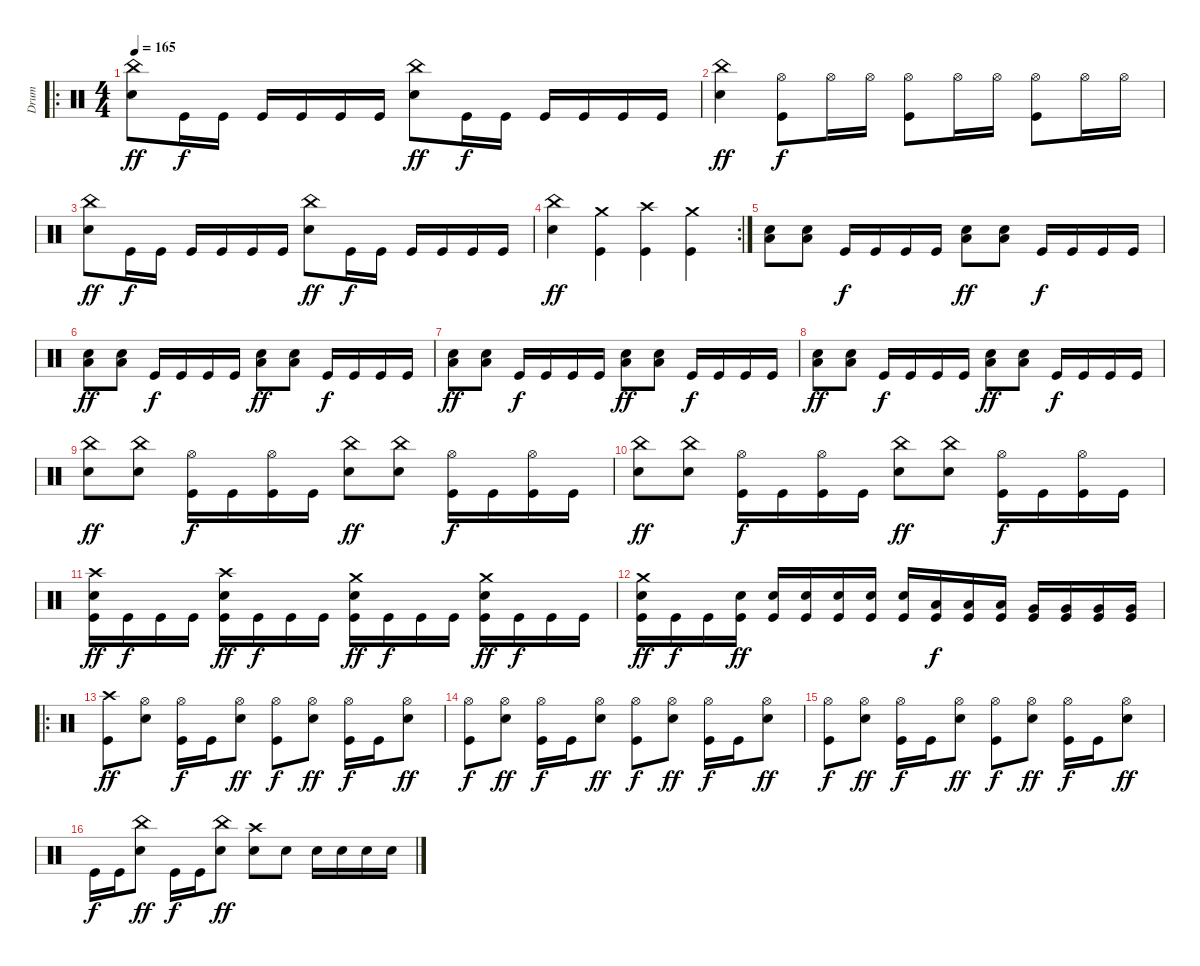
\track ("Drum" "Drum") {instrument percussion}
\staff {score}
\articulation defaults
\ro
\ts (4 4)
\tempo 165
\clef neutral
\ks c
("Electric Snare (hit)" "China (hit)").8{dy ff} "Kick (hit)".16{dy f} "Kick (hit)".16 "Kick (hit)".16 "Kick (hit)".16 "Kick (hit)".16 "Kick (hit)".16 ("Electric Snare (hit)" "China (hit)").8{dy ff} "Kick (hit)".16{dy f} "Kick (hit)".16 "Kick (hit)".16 "Kick (hit)".16 "Kick (hit)".16 "Kick (hit)".16 |
("Electric Snare (hit)" "China (hit)").4{dy ff} ("Kick (hit)" "Hi-Hat (open)").8{dy f} "Hi-Hat (open)".16 "Hi-Hat (open)".16 ("Kick (hit)" "Hi-Hat (open)").8 "Hi-Hat (open)".16 "Hi-Hat (open)".16 ("Kick (hit)" "Hi-Hat (open)").8 "Hi-Hat (open)".16 "Hi-Hat (open)".16 |
("Electric Snare (hit)" "China (hit)").8{dy ff} "Kick (hit)".16{dy f} "Kick (hit)".16 "Kick (hit)".16 "Kick (hit)".16 "Kick (hit)".16 "Kick (hit)".16 ("Electric Snare (hit)" "China (hit)").8{dy ff} "Kick (hit)".16{dy f} "Kick (hit)".16 "Kick (hit)".16 "Kick (hit)".16 "Kick (hit)".16 "Kick (hit)".16 |
\rc 2
("Electric Snare (hit)" "China (hit)").4{dy ff} ("Kick (hit)" "Crash medium (hit)").4 ("Kick (hit)" "Crash high (hit)").4 ("Kick (hit)" "Crash medium (hit)").4 |
("Electric Snare (hit)" "Low Floor Tom (hit)").8 ("Electric Snare (hit)" "Low Floor Tom (hit)").8 "Kick (hit)".16{dy f} "Kick (hit)".16 "Kick (hit)".16 "Kick (hit)".16 ("Electric Snare (hit)" "Low Floor Tom (hit)").8{dy ff} ("Electric Snare (hit)" "Low Floor Tom (hit)").8 "Kick (hit)".16{dy f} "Kick (hit)".16 "Kick (hit)".16 "Kick (hit)".16 |
("Electric Snare (hit)" "Low Floor Tom (hit)").8{dy ff} ("Electric Snare (hit)" "Low Floor Tom (hit)").8 "Kick (hit)".16{dy f} "Kick (hit)".16 "Kick (hit)".16 "Kick (hit)".16 ("Electric Snare (hit)" "Low Floor Tom (hit)").8{dy ff} ("Electric Snare (hit)" "Low Floor Tom (hit)").8 "Kick (hit)".16{dy f} "Kick (hit)".16 "Kick (hit)".16 "Kick (hit)".16 |
("Electric Snare (hit)" "Low Floor Tom (hit)").8{dy ff} ("Electric Snare (hit)" "Low Floor Tom (hit)").8 "Kick (hit)".16{dy f} "Kick (hit)".16 "Kick (hit)".16 "Kick (hit)".16 ("Electric Snare (hit)" "Low Floor Tom (hit)").8{dy ff} ("Electric Snare (hit)" "Low Floor Tom (hit)").8 "Kick (hit)".16{dy f} "Kick (hit)".16 "Kick (hit)".16 "Kick (hit)".16 |
("Electric Snare (hit)" "Low Floor Tom (hit)").8{dy ff} ("Electric Snare (hit)" "Low Floor Tom (hit)").8 "Kick (hit)".16{dy f} "Kick (hit)".16 "Kick (hit)".16 "Kick (hit)".16 ("Electric Snare (hit)" "Low Floor Tom (hit)").8{dy ff} ("Electric Snare (hit)" "Low Floor Tom (hit)").8 "Kick (hit)".16{dy f} "Kick (hit)".16 "Kick (hit)".16 "Kick (hit)".16 |
("Electric Snare (hit)" "China (hit)").8{dy ff} ("Electric Snare (hit)" "China (hit)").8 ("Kick (hit)" "Hi-Hat (open)").16{dy f} "Kick (hit)".16 ("Kick (hit)" "Hi-Hat (open)").16 "Kick (hit)".16 ("Electric Snare (hit)" "China (hit)").8{dy ff} ("Electric Snare (hit)" "China (hit)").8 ("Kick (hit)" "Hi-Hat (open)").16{dy f} "Kick (hit)".16 ("Kick (hit)" "Hi-Hat (open)").16 "Kick (hit)".16 |
("Electric Snare (hit)" "China (hit)").8{dy ff} ("Electric Snare (hit)" "China (hit)").8 ("Kick (hit)" "Hi-Hat (open)").16{dy f} "Kick (hit)".16 ("Kick (hit)" "Hi-Hat (open)").16 "Kick (hit)".16 ("Electric Snare (hit)" "China (hit)").8{dy ff} ("Electric Snare (hit)" "China (hit)").8 ("Kick (hit)" "Hi-Hat (open)").16{dy f} "Kick (hit)".16 ("Kick (hit)" "Hi-Hat (open)").16 "Kick (hit)".16 |
("Kick (hit)" "Electric Snare (hit)" "Crash high (hit)").16{dy ff} "Kick (hit)".16{dy f} "Kick (hit)".16 "Kick (hit)".16 ("Kick (hit)" "Electric Snare (hit)" "Crash high (hit)").16{dy ff} "Kick (hit)".16{dy f} "Kick (hit)".16 "Kick (hit)".16 ("Kick (hit)" "Electric Snare (hit)" "Crash medium (hit)").16{dy ff} "Kick (hit)".16{dy f} "Kick (hit)".16 "Kick (hit)".16 ("Kick (hit)" "Electric Snare (hit)" "Crash medium (hit)").16{dy ff} "Kick (hit)".16{dy f} "Kick (hit)".16 "Kick (hit)".16 |
("Kick (hit)" "Electric Snare (hit)" "Crash medium (hit)").16{dy ff} "Kick (hit)".16{dy f} "Kick (hit)".16 ("Kick (hit)" "Electric Snare (hit)").16{dy ff} ("Kick (hit)" "Electric Snare (hit)").16 ("Kick (hit)" "Electric Snare (hit)").16 ("Kick (hit)" "Electric Snare (hit)").16 ("Kick (hit)" "Electric Snare (hit)").16 ("Kick (hit)" "Electric Snare (hit)").16 ("Kick (hit)" "Low Tom (hit)").16{dy f} ("Kick (hit)" "Low Tom (hit)").16 ("Kick (hit)" "Low Tom (hit)").16 ("Kick (hit)" "Very Low Tom (hit)").16 ("Kick (hit)" "Very Low Tom (hit)").16 ("Kick (hit)" "Very Low Tom (hit)").16 ("Kick (hit)" "Very Low Tom (hit)").16 |
\ro
("Kick (hit)" "Crash high (hit)").8{dy ff} ("Electric Snare (hit)" "Hi-Hat (open)").8 ("Kick (hit)" "Hi-Hat (open)").16{dy f} "Kick (hit)".16 ("Electric Snare (hit)" "Hi-Hat (open)").8{dy ff} ("Kick (hit)" "Hi-Hat (open)").8{dy f} ("Electric Snare (hit)" "Hi-Hat (open)").8{dy ff} ("Kick (hit)" "Hi-Hat (open)").16{dy f} "Kick (hit)".16 ("Electric Snare (hit)" "Hi-Hat (open)").8{dy ff} |
("Kick (hit)" "Hi-Hat (open)").8{dy f} ("Electric Snare (hit)" "Hi-Hat (open)").8{dy ff} ("Kick (hit)" "Hi-Hat (open)").16{dy f} "Kick (hit)".16 ("Electric Snare (hit)" "Hi-Hat (open)").8{dy ff} ("Kick (hit)" "Hi-Hat (open)").8{dy f} ("Electric Snare (hit)" "Hi-Hat (open)").8{dy ff} ("Kick (hit)" "Hi-Hat (open)").16{dy f} "Kick (hit)".16 ("Electric Snare (hit)" "Hi-Hat (open)").8{dy ff} |
("Kick (hit)" "Hi-Hat (open)").8{dy f} ("Electric Snare (hit)" "Hi-Hat (open)").8{dy ff} ("Kick (hit)" "Hi-Hat (open)").16{dy f} "Kick (hit)".16 ("Electric Snare (hit)" "Hi-Hat (open)").8{dy ff} ("Kick (hit)" "Hi-Hat (open)").8{dy f} ("Electric Snare (hit)" "Hi-Hat (open)").8{dy ff} ("Kick (hit)" "Hi-Hat (open)").16{dy f} "Kick (hit)".16 ("Electric Snare (hit)" "Hi-Hat (open)").8{dy ff} |
"Kick (hit)".16{dy f} "Kick (hit)".16 ("Electric Snare (hit)" "China (hit)").8{dy ff} "Kick (hit)".16{dy f} "Kick (hit)".16 ("Electric Snare (hit)" "China (hit)").8{dy ff} ("Electric Snare (hit)" "Crash high (hit)").8 "Electric Snare (hit)".8 "Electric Snare (hit)".16 "Electric Snare (hit)".16 "Electric Snare (hit)".16 "Electric Snare (hit)".16
